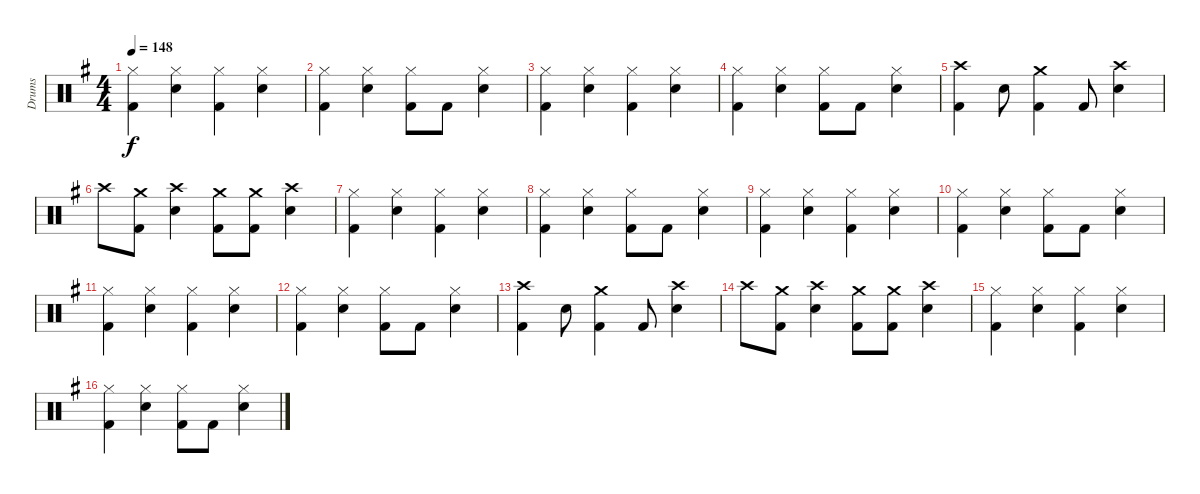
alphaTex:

\track ("Drums" "Drums") {instrument percussion}
\staff {score}
\articulation defaults
\ts (4 4)
\tempo 148
\clef neutral
\ks eminor
("Kick (hit) 2" "Hi-Hat (closed)").4{dy f} ("Snare (hit) 2" "Hi-Hat (closed)").4 ("Kick (hit) 2" "Hi-Hat (closed)").4 ("Snare (hit) 2" "Hi-Hat (closed)").4 |
("Kick (hit) 2" "Hi-Hat (closed)").4 ("Snare (hit) 2" "Hi-Hat (closed)").4 ("Kick (hit) 2" "Hi-Hat (closed)").8 "Kick (hit) 2".8 ("Snare (hit) 2" "Hi-Hat (closed)").4 |
("Kick (hit) 2" "Hi-Hat (closed)").4 ("Snare (hit) 2" "Hi-Hat (closed)").4 ("Kick (hit) 2" "Hi-Hat (closed)").4 ("Snare (hit) 2" "Hi-Hat (closed)").4 |
("Kick (hit) 2" "Hi-Hat (closed)").4 ("Snare (hit) 2" "Hi-Hat (closed)").4 ("Kick (hit) 2" "Hi-Hat (closed)").8 "Kick (hit) 2".8 ("Snare (hit) 2" "Hi-Hat (closed)").4 |
("Kick (hit) 2" "Crash high (hit)").4 "Snare (hit) 2".8 ("Kick (hit) 2" "Crash medium (hit)").4 "Kick (hit) 2".8 ("Snare (hit) 2" "Crash high (hit)").4 |
"Crash high (hit)".8 ("Kick (hit) 2" "Crash medium (hit)").8 ("Snare (hit) 2" "Crash high (hit)").4 ("Kick (hit) 2" "Crash medium (hit)").8 ("Kick (hit) 2" "Crash medium (hit)").8 ("Snare (hit) 2" "Crash high (hit)").4 |
("Kick (hit) 2" "Hi-Hat (closed)").4 ("Snare (hit) 2" "Hi-Hat (closed)").4 ("Kick (hit) 2" "Hi-Hat (closed)").4 ("Snare (hit) 2" "Hi-Hat (closed)").4 |
("Kick (hit) 2" "Hi-Hat (closed)").4 ("Snare (hit) 2" "Hi-Hat (closed)").4 ("Kick (hit) 2" "Hi-Hat (closed)").8 "Kick (hit) 2".8 ("Snare (hit) 2" "Hi-Hat (closed)").4 |
("Kick (hit) 2" "Hi-Hat (closed)").4 ("Snare (hit) 2" "Hi-Hat (closed)").4 ("Kick (hit) 2" "Hi-Hat (closed)").4 ("Snare (hit) 2" "Hi-Hat (closed)").4 |
("Kick (hit) 2" "Hi-Hat (closed)").4 ("Snare (hit) 2" "Hi-Hat (closed)").4 ("Kick (hit) 2" "Hi-Hat (closed)").8 "Kick (hit) 2".8 ("Snare (hit) 2" "Hi-Hat (closed)").4 |
("Kick (hit) 2" "Hi-Hat (closed)").4 ("Snare (hit) 2" "Hi-Hat (closed)").4 ("Kick (hit) 2" "Hi-Hat (closed)").4 ("Snare (hit) 2" "Hi-Hat (closed)").4 |
("Kick (hit) 2" "Hi-Hat (closed)").4 ("Snare (hit) 2" "Hi-Hat (closed)").4 ("Kick (hit) 2" "Hi-Hat (closed)").8 "Kick (hit) 2".8 ("Snare (hit) 2" "Hi-Hat (closed)").4 |
("Kick (hit) 2" "Crash high (hit)").4 "Snare (hit) 2".8 ("Kick (hit) 2" "Crash medium (hit)").4 "Kick (hit) 2".8 ("Snare (hit) 2" "Crash high (hit)").4 |
"Crash high (hit)".8 ("Kick (hit) 2" "Crash medium (hit)").8 ("Snare (hit) 2" "Crash high (hit)").4 ("Kick (hit) 2" "Crash medium (hit)").8 ("Kick (hit) 2" "Crash medium (hit)").8 ("Snare (hit) 2" "Crash high (hit)").4 |
("Kick (hit) 2" "Hi-Hat (closed)").4 ("Snare (hit) 2" "Hi-Hat (closed)").4 ("Kick (hit) 2" "Hi-Hat (closed)").4 ("Snare (hit) 2" "Hi-Hat (closed)").4 |
("Kick (hit) 2" "Hi-Hat (closed)").4 ("Snare (hit) 2" "Hi-Hat (closed)").4 ("Kick (hit) 2" "Hi-Hat (closed)").8 "Kick (hit) 2".8 ("Snare (hit) 2" "Hi-Hat (closed)").4
